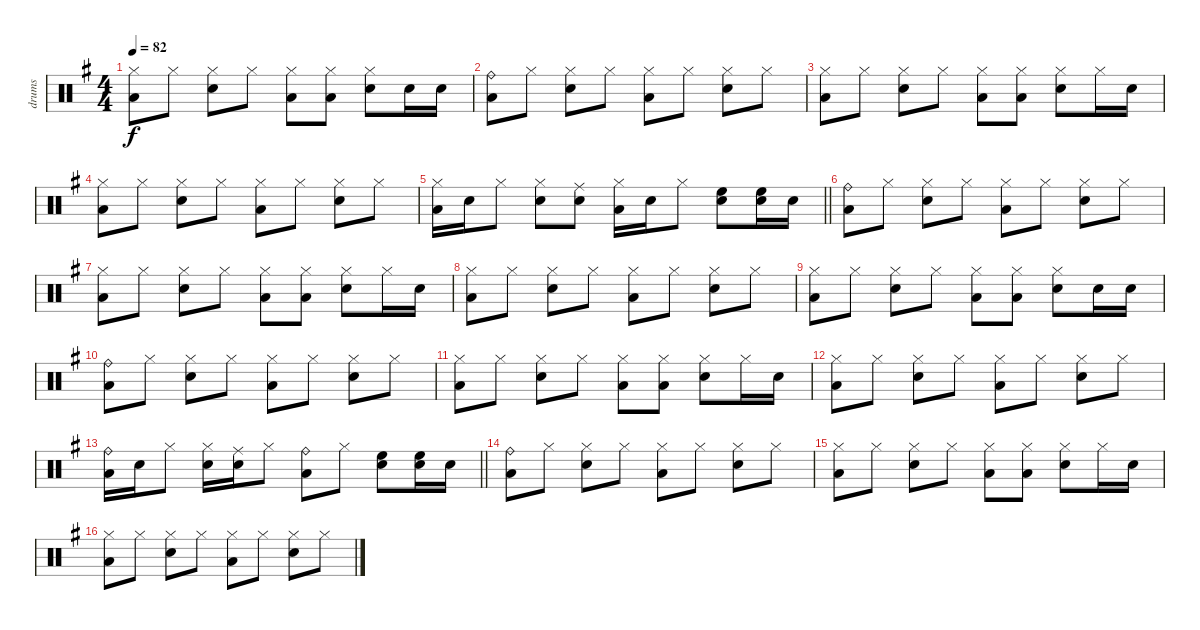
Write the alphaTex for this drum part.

\track ("drums" "drums") {instrument percussion}
\staff {score}
\articulation defaults
\ts (4 4)
\tempo 82
\clef neutral
\ks g
("Hi-Hat (closed)" "Low Floor Tom (hit)").8{dy f} "Hi-Hat (closed)".8 ("Hi-Hat (closed)" "Electric Snare (hit)").8 "Hi-Hat (closed)".8 ("Hi-Hat (closed)" "Low Floor Tom (hit)").8 ("Hi-Hat (closed)" "Low Floor Tom (hit)").8 ("Hi-Hat (closed)" "Electric Snare (hit)").8 "Electric Snare (hit)".16 "Electric Snare (hit)".16 |
("Ride (bell)" "Low Floor Tom (hit)").8 "Hi-Hat (closed)".8 ("Hi-Hat (closed)" "Electric Snare (hit)").8 "Hi-Hat (closed)".8 ("Hi-Hat (closed)" "Low Floor Tom (hit)").8 "Hi-Hat (closed)".8 ("Hi-Hat (closed)" "Electric Snare (hit)").8 "Hi-Hat (closed)".8 |
("Hi-Hat (closed)" "Low Floor Tom (hit)").8 "Hi-Hat (closed)".8 ("Hi-Hat (closed)" "Electric Snare (hit)").8 "Hi-Hat (closed)".8 ("Hi-Hat (closed)" "Low Floor Tom (hit)").8 ("Hi-Hat (closed)" "Low Floor Tom (hit)").8 ("Hi-Hat (closed)" "Electric Snare (hit)").8 "Hi-Hat (closed)".16 "Electric Snare (hit)".16 |
("Hi-Hat (closed)" "Low Floor Tom (hit)").8 "Hi-Hat (closed)".8 ("Hi-Hat (closed)" "Electric Snare (hit)").8 "Hi-Hat (closed)".8 ("Hi-Hat (closed)" "Low Floor Tom (hit)").8 "Hi-Hat (closed)".8 ("Hi-Hat (closed)" "Electric Snare (hit)").8 "Hi-Hat (closed)".8 |
\barLineRight lightlight
("Hi-Hat (closed)" "Low Floor Tom (hit)").16 "Electric Snare (hit)".16 "Hi-Hat (closed)".8 ("Hi-Hat (closed)" "Electric Snare (hit)").8 ("Ride (middle)" "Electric Snare (hit)").8 ("Hi-Hat (closed)" "Low Floor Tom (hit)").16 "Electric Snare (hit)".16 "Hi-Hat (closed)".8 ("High Floor Tom (hit)" "Electric Snare (hit)").8 ("High Floor Tom (hit)" "Electric Snare (hit)").16 "Electric Snare (hit)".16 |
("Ride (bell)" "Low Floor Tom (hit)").8 "Hi-Hat (closed)".8 ("Hi-Hat (closed)" "Electric Snare (hit)").8 "Hi-Hat (closed)".8 ("Hi-Hat (closed)" "Low Floor Tom (hit)").8 "Hi-Hat (closed)".8 ("Hi-Hat (closed)" "Electric Snare (hit)").8 "Hi-Hat (closed)".8 |
("Hi-Hat (closed)" "Low Floor Tom (hit)").8 "Hi-Hat (closed)".8 ("Hi-Hat (closed)" "Electric Snare (hit)").8 "Hi-Hat (closed)".8 ("Hi-Hat (closed)" "Low Floor Tom (hit)").8 ("Hi-Hat (closed)" "Low Floor Tom (hit)").8 ("Hi-Hat (closed)" "Electric Snare (hit)").8 "Hi-Hat (closed)".16 "Electric Snare (hit)".16 |
("Hi-Hat (closed)" "Low Floor Tom (hit)").8 "Hi-Hat (closed)".8 ("Hi-Hat (closed)" "Electric Snare (hit)").8 "Hi-Hat (closed)".8 ("Hi-Hat (closed)" "Low Floor Tom (hit)").8 "Hi-Hat (closed)".8 ("Hi-Hat (closed)" "Electric Snare (hit)").8 "Hi-Hat (closed)".8 |
("Hi-Hat (closed)" "Low Floor Tom (hit)").8 "Hi-Hat (closed)".8 ("Hi-Hat (closed)" "Electric Snare (hit)").8 "Hi-Hat (closed)".8 ("Hi-Hat (closed)" "Low Floor Tom (hit)").8 ("Hi-Hat (closed)" "Low Floor Tom (hit)").8 ("Hi-Hat (closed)" "Electric Snare (hit)").8 "Electric Snare (hit)".16 "Electric Snare (hit)".16 |
("Ride (bell)" "Low Floor Tom (hit)").8 "Hi-Hat (closed)".8 ("Hi-Hat (closed)" "Electric Snare (hit)").8 "Hi-Hat (closed)".8 ("Hi-Hat (closed)" "Low Floor Tom (hit)").8 "Hi-Hat (closed)".8 ("Hi-Hat (closed)" "Electric Snare (hit)").8 "Hi-Hat (closed)".8 |
("Hi-Hat (closed)" "Low Floor Tom (hit)").8 "Hi-Hat (closed)".8 ("Hi-Hat (closed)" "Electric Snare (hit)").8 "Hi-Hat (closed)".8 ("Hi-Hat (closed)" "Low Floor Tom (hit)").8 ("Hi-Hat (closed)" "Low Floor Tom (hit)").8 ("Hi-Hat (closed)" "Electric Snare (hit)").8 "Hi-Hat (closed)".16 "Electric Snare (hit)".16 |
("Hi-Hat (closed)" "Low Floor Tom (hit)").8 "Hi-Hat (closed)".8 ("Hi-Hat (closed)" "Electric Snare (hit)").8 "Hi-Hat (closed)".8 ("Hi-Hat (closed)" "Low Floor Tom (hit)").8 "Hi-Hat (closed)".8 ("Hi-Hat (closed)" "Electric Snare (hit)").8 "Hi-Hat (closed)".8 |
\barLineRight lightlight
("Ride (bell)" "Low Floor Tom (hit)").16 "Electric Snare (hit)".16 "Hi-Hat (closed)".8 ("Hi-Hat (closed)" "Electric Snare (hit)").16 ("Ride (middle)" "Electric Snare (hit)").16 "Hi-Hat (closed)".8 ("Ride (bell)" "Low Floor Tom (hit)").8 "Hi-Hat (closed)".8 ("High Floor Tom (hit)" "Electric Snare (hit)").8 ("High Floor Tom (hit)" "Electric Snare (hit)").16 "Electric Snare (hit)".16 |
("Ride (bell)" "Low Floor Tom (hit)").8 "Hi-Hat (closed)".8 ("Hi-Hat (closed)" "Electric Snare (hit)").8 "Hi-Hat (closed)".8 ("Hi-Hat (closed)" "Low Floor Tom (hit)").8 "Hi-Hat (closed)".8 ("Hi-Hat (closed)" "Electric Snare (hit)").8 "Hi-Hat (closed)".8 |
("Hi-Hat (closed)" "Low Floor Tom (hit)").8 "Hi-Hat (closed)".8 ("Hi-Hat (closed)" "Electric Snare (hit)").8 "Hi-Hat (closed)".8 ("Hi-Hat (closed)" "Low Floor Tom (hit)").8 ("Hi-Hat (closed)" "Low Floor Tom (hit)").8 ("Hi-Hat (closed)" "Electric Snare (hit)").8 "Hi-Hat (closed)".16 "Electric Snare (hit)".16 |
("Hi-Hat (closed)" "Low Floor Tom (hit)").8 "Hi-Hat (closed)".8 ("Hi-Hat (closed)" "Electric Snare (hit)").8 "Hi-Hat (closed)".8 ("Hi-Hat (closed)" "Low Floor Tom (hit)").8 "Hi-Hat (closed)".8 ("Hi-Hat (closed)" "Electric Snare (hit)").8 "Hi-Hat (closed)".8
